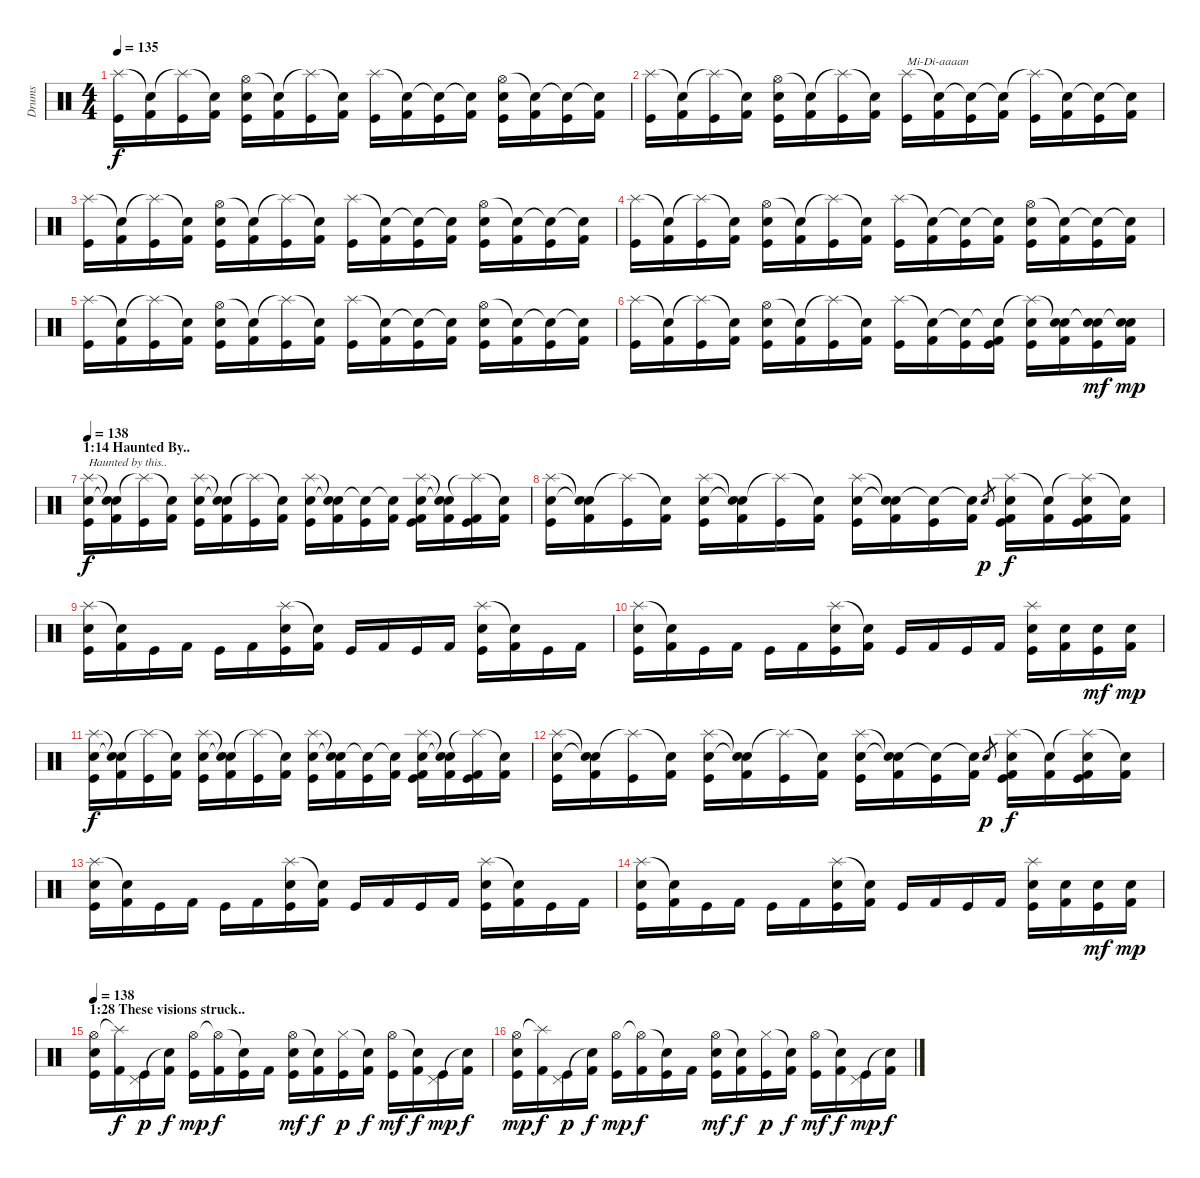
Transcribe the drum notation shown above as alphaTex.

\track ("Drums" "Drums") {instrument percussion}
\staff {score}
\articulation defaults
\ts (4 4)
\tempo 135
\clef neutral
\ks c
("Splash (hit)" "Kick (hit)").16{dy f} ("Snare (hit)"{t} "Kick (hit) 2").16 ("Splash (hit)"{t} "Kick (hit)").16 ("Snare (hit)"{t} "Kick (hit) 2").16 ("Hi-Hat (open)" "Snare (hit) 2" "Kick (hit)").16 ("Snare (hit)"{t} "Kick (hit) 2").16 ("Splash (hit)"{t} "Kick (hit)").16 ("Snare (hit)"{t} "Kick (hit) 2").16 ("Splash (hit)" "Kick (hit)").16 ("Snare (hit)"{t} "Kick (hit) 2").16 ("Snare (hit)"{t} "Kick (hit)").16 ("Snare (hit)"{t} "Kick (hit) 2").16 ("Hi-Hat (open)" "Snare (hit) 2" "Kick (hit)").16 ("Snare (hit)"{t} "Kick (hit) 2").16 ("Snare (hit)"{t} "Kick (hit)").16 ("Snare (hit)"{t} "Kick (hit) 2").16 |
("Splash (hit)" "Kick (hit)").16 ("Snare (hit)"{t} "Kick (hit) 2").16 ("Splash (hit)"{t} "Kick (hit)").16 ("Snare (hit)"{t} "Kick (hit) 2").16 ("Hi-Hat (open)" "Snare (hit) 2" "Kick (hit)").16 ("Snare (hit)"{t} "Kick (hit) 2").16 ("Splash (hit)"{t} "Kick (hit)").16 ("Snare (hit)"{t} "Kick (hit) 2").16 ("Splash (hit)" "Kick (hit)").16{txt "Mi-Di-aaaan"} ("Snare (hit)"{t} "Kick (hit) 2").16 ("Snare (hit)"{t} "Kick (hit)").16 ("Snare (hit)"{t} "Kick (hit) 2").16 ("Splash (hit)"{t} "Kick (hit)").16 ("Snare (hit)"{t} "Kick (hit) 2").16 ("Snare (hit)"{t} "Kick (hit)").16 ("Snare (hit)"{t} "Kick (hit) 2").16 |
("Splash (hit)" "Kick (hit)").16 ("Snare (hit)"{t} "Kick (hit) 2").16 ("Splash (hit)"{t} "Kick (hit)").16 ("Snare (hit)"{t} "Kick (hit) 2").16 ("Hi-Hat (open)" "Snare (hit) 2" "Kick (hit)").16 ("Snare (hit)"{t} "Kick (hit) 2").16 ("Splash (hit)"{t} "Kick (hit)").16 ("Snare (hit)"{t} "Kick (hit) 2").16 ("Splash (hit)" "Kick (hit)").16 ("Snare (hit)"{t} "Kick (hit) 2").16 ("Snare (hit)"{t} "Kick (hit)").16 ("Snare (hit)"{t} "Kick (hit) 2").16 ("Hi-Hat (open)" "Snare (hit) 2" "Kick (hit)").16 ("Snare (hit)"{t} "Kick (hit) 2").16 ("Snare (hit)"{t} "Kick (hit)").16 ("Snare (hit)"{t} "Kick (hit) 2").16 |
("Splash (hit)" "Kick (hit)").16 ("Snare (hit)"{t} "Kick (hit) 2").16 ("Splash (hit)"{t} "Kick (hit)").16 ("Snare (hit)"{t} "Kick (hit) 2").16 ("Hi-Hat (open)" "Snare (hit) 2" "Kick (hit)").16 ("Snare (hit)"{t} "Kick (hit) 2").16 ("Splash (hit)"{t} "Kick (hit)").16 ("Snare (hit)"{t} "Kick (hit) 2").16 ("Splash (hit)" "Kick (hit)").16 ("Snare (hit)"{t} "Kick (hit) 2").16 ("Snare (hit)"{t} "Kick (hit)").16 ("Snare (hit)"{t} "Kick (hit) 2").16 ("Hi-Hat (open)" "Snare (hit) 2" "Kick (hit)").16 ("Snare (hit)"{t} "Kick (hit) 2").16 ("Snare (hit)"{t} "Kick (hit)").16 ("Snare (hit)"{t} "Kick (hit) 2").16 |
("Splash (hit)" "Kick (hit)").16 ("Snare (hit)"{t} "Kick (hit) 2").16 ("Splash (hit)"{t} "Kick (hit)").16 ("Snare (hit)"{t} "Kick (hit) 2").16 ("Hi-Hat (open)" "Snare (hit) 2" "Kick (hit)").16 ("Snare (hit)"{t} "Kick (hit) 2").16 ("Splash (hit)"{t} "Kick (hit)").16 ("Snare (hit)"{t} "Kick (hit) 2").16 ("Splash (hit)" "Kick (hit)").16 ("Snare (hit)"{t} "Kick (hit) 2").16 ("Snare (hit)"{t} "Kick (hit)").16 ("Snare (hit)"{t} "Kick (hit) 2").16 ("Hi-Hat (open)" "Snare (hit) 2" "Kick (hit)").16 ("Snare (hit)"{t} "Kick (hit) 2").16 ("Snare (hit)"{t} "Kick (hit)").16 ("Snare (hit)"{t} "Kick (hit) 2").16 |
("Splash (hit)" "Kick (hit)").16 ("Snare (hit)"{t} "Kick (hit) 2").16 ("Splash (hit)"{t} "Kick (hit)").16 ("Snare (hit)"{t} "Kick (hit) 2").16 ("Hi-Hat (open)" "Snare (hit) 2" "Kick (hit)").16 ("Snare (hit)"{t} "Kick (hit) 2").16 ("Splash (hit)"{t} "Kick (hit)").16 ("Snare (hit)"{t} "Kick (hit) 2").16 ("Splash (hit)" "Kick (hit)").16 ("Snare (hit)"{t} "Kick (hit) 2").16 ("Snare (hit)"{t} "Kick (hit)").16 ("Snare (hit)"{t} "Kick (hit)" "Kick (hit) 2").16 ("Splash (hit)"{t} "Snare (hit) 2" "Kick (hit)").16 ("Snare (hit)"{t} "Snare (hit) 2" "Kick (hit) 2").16 ("Snare (hit)"{t} "Snare (hit) 2" "Kick (hit)").16{dy mf} ("Snare (hit)"{t} "Snare (hit) 2" "Kick (hit) 2").16{dy mp} |
\section ("" "1:14 Haunted By..")
\tempo 138
("Splash (hit)" "Snare (hit) 2" "Kick (hit)").16{txt "Haunted by this.." dy f} ("Snare (hit)"{t} "Snare (hit)"{t} "Kick (hit) 2").16 ("Splash (hit)"{t} "Kick (hit)").16 ("Snare (hit)"{t} "Kick (hit) 2").16 ("Splash (hit)" "Snare (hit) 2" "Kick (hit)").16 ("Snare (hit)"{t} "Snare (hit)"{t} "Kick (hit) 2").16 ("Splash (hit)"{t} "Kick (hit)").16 ("Snare (hit)"{t} "Kick (hit) 2").16 ("Splash (hit)" "Snare (hit) 2" "Kick (hit)").16 ("Snare (hit)"{t} "Snare (hit)"{t} "Kick (hit) 2").16 ("Snare (hit)"{t} "Kick (hit)").16 ("Snare (hit)"{t} "Kick (hit) 2").16 ("Splash (hit)" "Snare (hit) 2" "Kick (hit) 2" "Kick (hit)").16 ("Snare (hit)"{t} "Snare (hit)"{t} "Kick (hit) 2").16 ("Splash (hit)"{t} "Kick (hit) 2" "Kick (hit)").16 ("Snare (hit)"{t} "Kick (hit) 2").16 |
("Splash (hit)" "Snare (hit) 2" "Kick (hit)").16 ("Snare (hit)"{t} "Snare (hit)"{t} "Kick (hit) 2").16 ("Splash (hit)"{t} "Kick (hit)").16 ("Snare (hit)"{t} "Kick (hit) 2").16 ("Splash (hit)" "Snare (hit) 2" "Kick (hit)").16 ("Snare (hit)"{t} "Snare (hit)"{t} "Kick (hit) 2").16 ("Splash (hit)"{t} "Kick (hit)").16 ("Snare (hit)"{t} "Kick (hit) 2").16 ("Splash (hit)" "Snare (hit) 2" "Kick (hit)").16 ("Snare (hit)"{t} "Snare (hit)"{t} "Kick (hit) 2").16 ("Snare (hit)"{t} "Kick (hit)").16 ("Snare (hit)"{t} "Kick (hit) 2").16 "Snare (hit) 2".8{gr dy p} ("Splash (hit)" "Snare (hit) 2" "Kick (hit) 2" "Kick (hit)").16{dy f} ("Snare (hit)"{t} "Kick (hit) 2").16 ("Splash (hit)"{t} "Snare (hit) 2" "Kick (hit) 2" "Kick (hit)").16 ("Snare (hit)"{t} "Kick (hit) 2").16 |
("Splash (hit)" "Snare (hit) 2" "Kick (hit)").16 ("Snare (hit)"{t} "Kick (hit) 2").16 "Kick (hit)".16 "Kick (hit) 2".16 "Kick (hit)".16 "Kick (hit) 2".16 ("Splash (hit)" "Snare (hit) 2" "Kick (hit)").16 ("Snare (hit)"{t} "Kick (hit) 2").16 "Kick (hit)".16 "Kick (hit) 2".16 "Kick (hit)".16 "Kick (hit) 2".16 ("Splash (hit)" "Snare (hit) 2" "Kick (hit)").16 ("Snare (hit)"{t} "Kick (hit) 2").16 "Kick (hit)".16 "Kick (hit) 2".16 |
("Splash (hit)" "Snare (hit) 2" "Kick (hit)").16 ("Snare (hit)"{t} "Kick (hit) 2").16 "Kick (hit)".16 "Kick (hit) 2".16 "Kick (hit)".16 "Kick (hit) 2".16 ("Splash (hit)" "Snare (hit) 2" "Kick (hit)").16 ("Snare (hit)"{t} "Kick (hit) 2").16 "Kick (hit)".16 "Kick (hit) 2".16 "Kick (hit)".16 "Kick (hit) 2".16 ("Splash (hit)" "Snare (hit) 2" "Kick (hit)").16 ("Snare (hit) 2" "Kick (hit) 2").16 ("Snare (hit) 2" "Kick (hit)").16{dy mf} ("Snare (hit) 2" "Kick (hit) 2").16{dy mp} |
("Splash (hit)" "Snare (hit) 2" "Kick (hit)").16{dy f} ("Snare (hit)"{t} "Snare (hit)"{t} "Kick (hit) 2").16 ("Splash (hit)"{t} "Kick (hit)").16 ("Snare (hit)"{t} "Kick (hit) 2").16 ("Splash (hit)" "Snare (hit) 2" "Kick (hit)").16 ("Snare (hit)"{t} "Snare (hit)"{t} "Kick (hit) 2").16 ("Splash (hit)"{t} "Kick (hit)").16 ("Snare (hit)"{t} "Kick (hit) 2").16 ("Splash (hit)" "Snare (hit) 2" "Kick (hit)").16 ("Snare (hit)"{t} "Snare (hit)"{t} "Kick (hit) 2").16 ("Snare (hit)"{t} "Kick (hit)").16 ("Snare (hit)"{t} "Kick (hit) 2").16 ("Splash (hit)" "Snare (hit) 2" "Kick (hit) 2" "Kick (hit)").16 ("Snare (hit)"{t} "Snare (hit)"{t} "Kick (hit) 2").16 ("Splash (hit)"{t} "Kick (hit) 2" "Kick (hit)").16 ("Snare (hit)"{t} "Kick (hit) 2").16 |
("Splash (hit)" "Snare (hit) 2" "Kick (hit)").16 ("Snare (hit)"{t} "Snare (hit)"{t} "Kick (hit) 2").16 ("Splash (hit)"{t} "Kick (hit)").16 ("Snare (hit)"{t} "Kick (hit) 2").16 ("Splash (hit)" "Snare (hit) 2" "Kick (hit)").16 ("Snare (hit)"{t} "Snare (hit)"{t} "Kick (hit) 2").16 ("Splash (hit)"{t} "Kick (hit)").16 ("Snare (hit)"{t} "Kick (hit) 2").16 ("Splash (hit)" "Snare (hit) 2" "Kick (hit)").16 ("Snare (hit)"{t} "Snare (hit)"{t} "Kick (hit) 2").16 ("Snare (hit)"{t} "Kick (hit)").16 ("Snare (hit)"{t} "Kick (hit) 2").16 "Snare (hit) 2".8{gr dy p} ("Splash (hit)" "Snare (hit) 2" "Kick (hit) 2" "Kick (hit)").16{dy f} ("Snare (hit)"{t} "Kick (hit) 2").16 ("Splash (hit)"{t} "Snare (hit) 2" "Kick (hit) 2" "Kick (hit)").16 ("Snare (hit)"{t} "Kick (hit) 2").16 |
("Splash (hit)" "Snare (hit) 2" "Kick (hit)").16 ("Snare (hit)"{t} "Kick (hit) 2").16 "Kick (hit)".16 "Kick (hit) 2".16 "Kick (hit)".16 "Kick (hit) 2".16 ("Splash (hit)" "Snare (hit) 2" "Kick (hit)").16 ("Snare (hit)"{t} "Kick (hit) 2").16 "Kick (hit)".16 "Kick (hit) 2".16 "Kick (hit)".16 "Kick (hit) 2".16 ("Splash (hit)" "Snare (hit) 2" "Kick (hit)").16 ("Snare (hit)"{t} "Kick (hit) 2").16 "Kick (hit)".16 "Kick (hit) 2".16 |
("Splash (hit)" "Snare (hit) 2" "Kick (hit)").16 ("Snare (hit)"{t} "Kick (hit) 2").16 "Kick (hit)".16 "Kick (hit) 2".16 "Kick (hit)".16 "Kick (hit) 2".16 ("Splash (hit)" "Snare (hit) 2" "Kick (hit)").16 ("Snare (hit)"{t} "Kick (hit) 2").16 "Kick (hit)".16 "Kick (hit) 2".16 "Kick (hit)".16 "Kick (hit) 2".16 ("Splash (hit)" "Snare (hit) 2" "Kick (hit)").16 ("Snare (hit) 2" "Kick (hit) 2").16 ("Snare (hit) 2" "Kick (hit)").16{dy mf} ("Snare (hit) 2" "Kick (hit) 2").16{dy mp} |
\section ("" "1:28 These visions struck..")
\tempo 138
("Hi-Hat (open)" "Snare (hit) 2" "Kick (hit)").16 ("Splash (hit)"{t} "Kick (hit) 2").16{dy f} ("Pedal Hi-Hat (hit)" "Kick (hit)").16{dy p} ("Snare (hit)"{t} "Kick (hit) 2").16{dy f} ("Hi-Hat (open)" "Kick (hit)").16{dy mp} ("Hi-Hat (open)"{t} "Kick (hit) 2").16{dy f} ("Snare (hit)"{t} "Kick (hit)").16 "Kick (hit) 2".16 ("Hi-Hat (open)" "Snare (hit) 2" "Kick (hit)").16{dy mf} ("Snare (hit)"{t} "Kick (hit) 2").16{dy f} ("Hi-Hat (closed)" "Kick (hit)").16{dy p} ("Snare (hit)"{t} "Kick (hit) 2").16{dy f} ("Hi-Hat (open)" "Kick (hit)").16{dy mf} ("Snare (hit)"{t} "Kick (hit) 2").16{dy f} ("Pedal Hi-Hat (hit)" "Kick (hit)").16{dy mp} ("Snare (hit)"{t} "Kick (hit) 2").16{dy f} |
("Hi-Hat (open)" "Snare (hit) 2" "Kick (hit)").16{dy mp} ("Splash (hit)"{t} "Kick (hit) 2").16{dy f} ("Pedal Hi-Hat (hit)" "Kick (hit)").16{dy p} ("Snare (hit)"{t} "Kick (hit) 2").16{dy f} ("Hi-Hat (open)" "Kick (hit)").16{dy mp} ("Hi-Hat (open)"{t} "Kick (hit) 2").16{dy f} ("Snare (hit)"{t} "Kick (hit)").16 "Kick (hit) 2".16 ("Hi-Hat (open)" "Snare (hit) 2" "Kick (hit)").16{dy mf} ("Snare (hit)"{t} "Kick (hit) 2").16{dy f} ("Hi-Hat (closed)" "Kick (hit)").16{dy p} ("Snare (hit)"{t} "Kick (hit) 2").16{dy f} ("Hi-Hat (open)" "Kick (hit)").16{dy mf} ("Snare (hit)"{t} "Kick (hit) 2").16{dy f} ("Pedal Hi-Hat (hit)" "Kick (hit)").16{dy mp} ("Snare (hit)"{t} "Kick (hit) 2").16{dy f}
